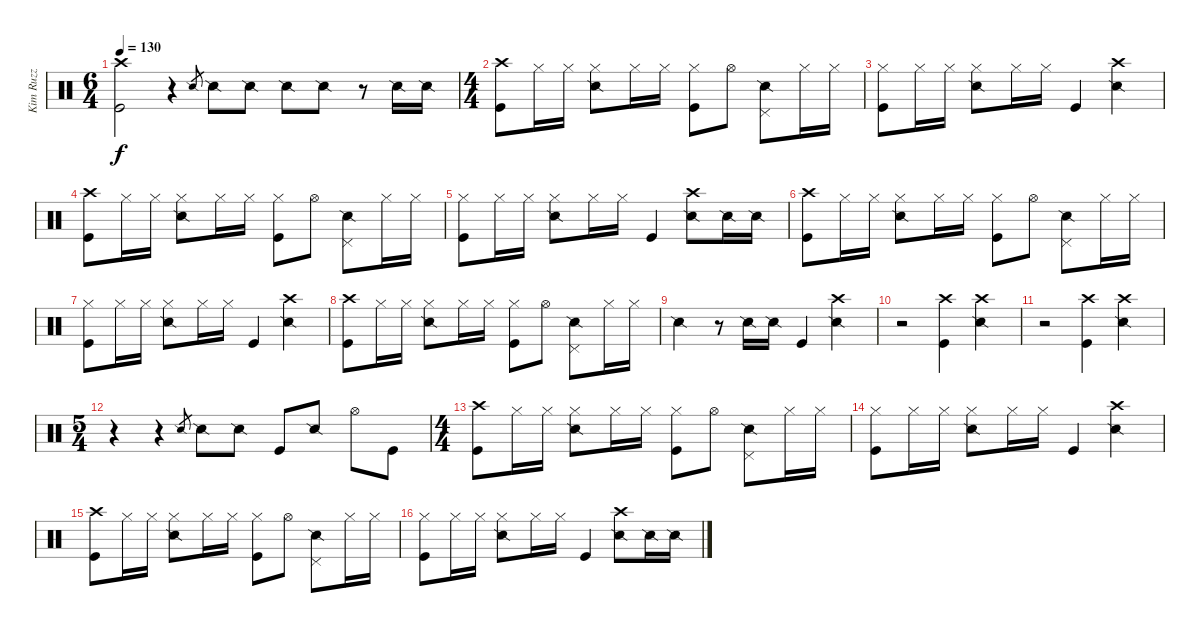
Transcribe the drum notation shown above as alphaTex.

\track ("Kim Ruzz" "Kim Ruzz") {instrument percussion}
\staff {score}
\articulation defaults
\ts (6 4)
\tempo 130
\clef neutral
\ks c
("Crash high (hit)" "Kick (hit)").2{dy f} r.4 "Snare (side stick) 2".8{gr} "Snare (side stick) 2".8 "Snare (side stick) 2".8 "Snare (side stick) 2".8 "Snare (side stick) 2".8 r.8 "Snare (side stick) 2".16 "Snare (side stick) 2".16 |
\ts (4 4)
("Crash high (hit)" "Kick (hit)").8 "Hi-Hat (closed)".16 "Hi-Hat (closed)".16 ("Hi-Hat (closed)" "Snare (side stick) 2").8 "Hi-Hat (closed)".16 "Hi-Hat (closed)".16 ("Hi-Hat (closed)" "Kick (hit)").8 "Hi-Hat (open)".8 ("Pedal Hi-Hat (hit)" "Snare (side stick) 2").8 "Hi-Hat (closed)".16 "Hi-Hat (closed)".16 |
("Hi-Hat (closed)" "Kick (hit)").8 "Hi-Hat (closed)".16 "Hi-Hat (closed)".16 ("Hi-Hat (closed)" "Snare (side stick) 2").8 "Hi-Hat (closed)".16 "Hi-Hat (closed)".16 "Kick (hit)".4 ("Crash high (hit)" "Snare (side stick) 2").4 |
("Crash high (hit)" "Kick (hit)").8 "Hi-Hat (closed)".16 "Hi-Hat (closed)".16 ("Hi-Hat (closed)" "Snare (side stick) 2").8 "Hi-Hat (closed)".16 "Hi-Hat (closed)".16 ("Hi-Hat (closed)" "Kick (hit)").8 "Hi-Hat (open)".8 ("Pedal Hi-Hat (hit)" "Snare (side stick) 2").8 "Hi-Hat (closed)".16 "Hi-Hat (closed)".16 |
("Hi-Hat (closed)" "Kick (hit)").8 "Hi-Hat (closed)".16 "Hi-Hat (closed)".16 ("Hi-Hat (closed)" "Snare (side stick) 2").8 "Hi-Hat (closed)".16 "Hi-Hat (closed)".16 "Kick (hit)".4 ("Crash high (hit)" "Snare (side stick) 2").8 "Snare (side stick) 2".16 "Snare (side stick) 2".16 |
("Crash high (hit)" "Kick (hit)").8 "Hi-Hat (closed)".16 "Hi-Hat (closed)".16 ("Hi-Hat (closed)" "Snare (side stick) 2").8 "Hi-Hat (closed)".16 "Hi-Hat (closed)".16 ("Hi-Hat (closed)" "Kick (hit)").8 "Hi-Hat (open)".8 ("Pedal Hi-Hat (hit)" "Snare (side stick) 2").8 "Hi-Hat (closed)".16 "Hi-Hat (closed)".16 |
("Hi-Hat (closed)" "Kick (hit)").8 "Hi-Hat (closed)".16 "Hi-Hat (closed)".16 ("Hi-Hat (closed)" "Snare (side stick) 2").8 "Hi-Hat (closed)".16 "Hi-Hat (closed)".16 "Kick (hit)".4 ("Crash high (hit)" "Snare (side stick) 2").4 |
("Crash high (hit)" "Kick (hit)").8 "Hi-Hat (closed)".16 "Hi-Hat (closed)".16 ("Hi-Hat (closed)" "Snare (side stick) 2").8 "Hi-Hat (closed)".16 "Hi-Hat (closed)".16 ("Hi-Hat (closed)" "Kick (hit)").8 "Hi-Hat (open)".8 ("Pedal Hi-Hat (hit)" "Snare (side stick) 2").8 "Hi-Hat (closed)".16 "Hi-Hat (closed)".16 |
"Snare (side stick) 2".4 r.8 "Snare (side stick) 2".16 "Snare (side stick) 2".16 "Kick (hit)".4 ("Crash high (hit)" "Snare (side stick) 2").4 |
r.2 ("Crash high (hit)" "Kick (hit)").4 ("Crash high (hit)" "Snare (side stick) 2").4 |
r.2 ("Crash high (hit)" "Kick (hit)").4 ("Crash high (hit)" "Snare (side stick) 2").4 |
\ts (5 4)
r.4 r.4 "Snare (side stick) 2".8{gr} "Snare (side stick) 2".8 "Snare (side stick) 2".8 "Kick (hit)".8 "Snare (side stick) 2".8 "Hi-Hat (open)".8 "Kick (hit)".8 |
\ts (4 4)
("Crash high (hit)" "Kick (hit)").8 "Hi-Hat (closed)".16 "Hi-Hat (closed)".16 ("Hi-Hat (closed)" "Snare (side stick) 2").8 "Hi-Hat (closed)".16 "Hi-Hat (closed)".16 ("Hi-Hat (closed)" "Kick (hit)").8 "Hi-Hat (open)".8 ("Pedal Hi-Hat (hit)" "Snare (side stick) 2").8 "Hi-Hat (closed)".16 "Hi-Hat (closed)".16 |
("Hi-Hat (closed)" "Kick (hit)").8 "Hi-Hat (closed)".16 "Hi-Hat (closed)".16 ("Hi-Hat (closed)" "Snare (side stick) 2").8 "Hi-Hat (closed)".16 "Hi-Hat (closed)".16 "Kick (hit)".4 ("Crash high (hit)" "Snare (side stick) 2").4 |
("Crash high (hit)" "Kick (hit)").8 "Hi-Hat (closed)".16 "Hi-Hat (closed)".16 ("Hi-Hat (closed)" "Snare (side stick) 2").8 "Hi-Hat (closed)".16 "Hi-Hat (closed)".16 ("Hi-Hat (closed)" "Kick (hit)").8 "Hi-Hat (open)".8 ("Pedal Hi-Hat (hit)" "Snare (side stick) 2").8 "Hi-Hat (closed)".16 "Hi-Hat (closed)".16 |
("Hi-Hat (closed)" "Kick (hit)").8 "Hi-Hat (closed)".16 "Hi-Hat (closed)".16 ("Hi-Hat (closed)" "Snare (side stick) 2").8 "Hi-Hat (closed)".16 "Hi-Hat (closed)".16 "Kick (hit)".4 ("Crash high (hit)" "Snare (side stick) 2").8 "Snare (side stick) 2".16 "Snare (side stick) 2".16
